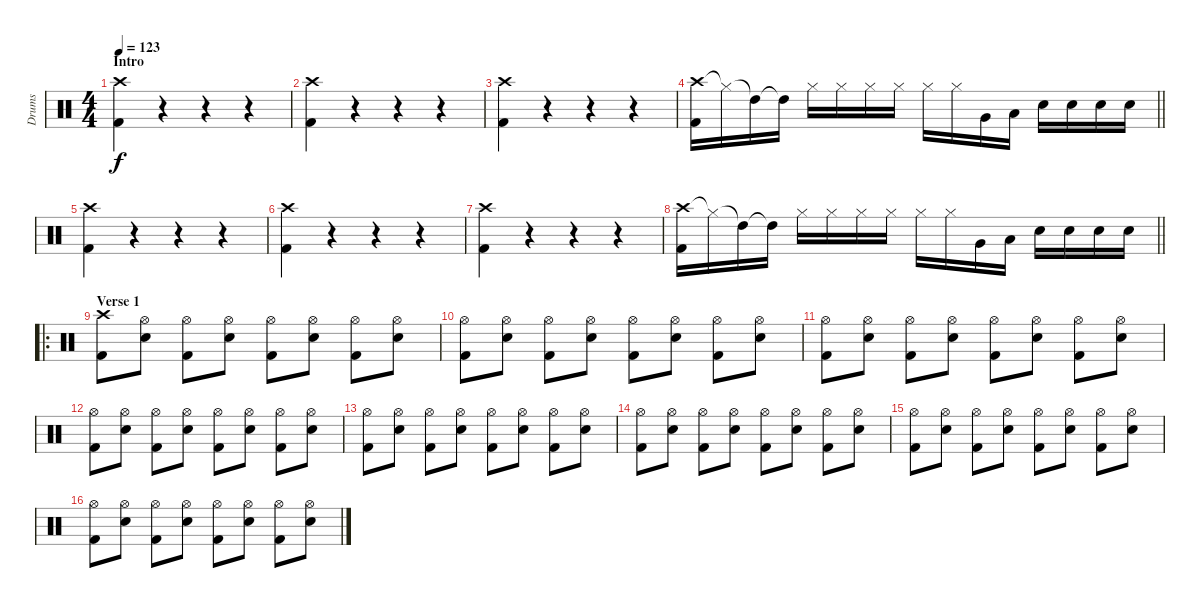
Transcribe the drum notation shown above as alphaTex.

\track ("Drums" "Drums") {instrument percussion}
\staff {score}
\articulation defaults
\ts (4 4)
\section ("" "Intro")
\tempo 123
\clef neutral
\ks c
("Crash high (hit)" "Kick (hit) 2").4{dy f} r.4 r.4 r.4 |
("Crash high (hit)" "Kick (hit) 2").4 r.4 r.4 r.4 |
("Crash high (hit)" "Kick (hit) 2").4 r.4 r.4 r.4 |
\barLineRight lightlight
("Crash high (hit)" "Kick (hit) 2").16 "Hi-Hat (closed)"{t}.16 "High Tom (hit)"{t}.16 "High Tom (hit)"{t}.16 "Hi-Hat (closed)".16 "Hi-Hat (closed)".16 "Hi-Hat (closed)".16 "Hi-Hat (closed)".16 "Hi-Hat (closed)".16 "Hi-Hat (closed)".16 "Very Low Tom (hit)".16 "Low Tom (hit)".16 "Snare (hit) 2".16 "Snare (hit) 2".16 "Snare (hit) 2".16 "Snare (hit) 2".16 |
("Crash high (hit)" "Kick (hit) 2").4 r.4 r.4 r.4 |
("Crash high (hit)" "Kick (hit) 2").4 r.4 r.4 r.4 |
("Crash high (hit)" "Kick (hit) 2").4 r.4 r.4 r.4 |
\barLineRight lightlight
("Crash high (hit)" "Kick (hit) 2").16 "Hi-Hat (closed)"{t}.16 "High Tom (hit)"{t}.16 "High Tom (hit)"{t}.16 "Hi-Hat (closed)".16 "Hi-Hat (closed)".16 "Hi-Hat (closed)".16 "Hi-Hat (closed)".16 "Hi-Hat (closed)".16 "Hi-Hat (closed)".16 "Very Low Tom (hit)".16 "Low Tom (hit)".16 "Snare (hit) 2".16 "Snare (hit) 2".16 "Snare (hit) 2".16 "Snare (hit) 2".16 |
\ro
\section ("" "Verse 1")
("Crash high (hit)" "Kick (hit) 2").8 ("Hi-Hat (open)" "Snare (hit) 2").8 ("Hi-Hat (open)" "Kick (hit) 2").8 ("Hi-Hat (open)" "Snare (hit) 2").8 ("Hi-Hat (open)" "Kick (hit) 2").8 ("Hi-Hat (open)" "Snare (hit) 2").8 ("Hi-Hat (open)" "Kick (hit) 2").8 ("Hi-Hat (open)" "Snare (hit) 2").8 |
("Hi-Hat (open)" "Kick (hit) 2").8 ("Hi-Hat (open)" "Snare (hit) 2").8 ("Hi-Hat (open)" "Kick (hit) 2").8 ("Hi-Hat (open)" "Snare (hit) 2").8 ("Hi-Hat (open)" "Kick (hit) 2").8 ("Hi-Hat (open)" "Snare (hit) 2").8 ("Hi-Hat (open)" "Kick (hit) 2").8 ("Hi-Hat (open)" "Snare (hit) 2").8 |
("Hi-Hat (open)" "Kick (hit) 2").8 ("Hi-Hat (open)" "Snare (hit) 2").8 ("Hi-Hat (open)" "Kick (hit) 2").8 ("Hi-Hat (open)" "Snare (hit) 2").8 ("Hi-Hat (open)" "Kick (hit) 2").8 ("Hi-Hat (open)" "Snare (hit) 2").8 ("Hi-Hat (open)" "Kick (hit) 2").8 ("Hi-Hat (open)" "Snare (hit) 2").8 |
("Hi-Hat (open)" "Kick (hit) 2").8 ("Hi-Hat (open)" "Snare (hit) 2").8 ("Hi-Hat (open)" "Kick (hit) 2").8 ("Hi-Hat (open)" "Snare (hit) 2").8 ("Hi-Hat (open)" "Kick (hit) 2").8 ("Hi-Hat (open)" "Snare (hit) 2").8 ("Hi-Hat (open)" "Kick (hit) 2").8 ("Hi-Hat (open)" "Snare (hit) 2").8 |
("Hi-Hat (open)" "Kick (hit) 2").8 ("Hi-Hat (open)" "Snare (hit) 2").8 ("Hi-Hat (open)" "Kick (hit) 2").8 ("Hi-Hat (open)" "Snare (hit) 2").8 ("Hi-Hat (open)" "Kick (hit) 2").8 ("Hi-Hat (open)" "Snare (hit) 2").8 ("Hi-Hat (open)" "Kick (hit) 2").8 ("Hi-Hat (open)" "Snare (hit) 2").8 |
("Hi-Hat (open)" "Kick (hit) 2").8 ("Hi-Hat (open)" "Snare (hit) 2").8 ("Hi-Hat (open)" "Kick (hit) 2").8 ("Hi-Hat (open)" "Snare (hit) 2").8 ("Hi-Hat (open)" "Kick (hit) 2").8 ("Hi-Hat (open)" "Snare (hit) 2").8 ("Hi-Hat (open)" "Kick (hit) 2").8 ("Hi-Hat (open)" "Snare (hit) 2").8 |
("Hi-Hat (open)" "Kick (hit) 2").8 ("Hi-Hat (open)" "Snare (hit) 2").8 ("Hi-Hat (open)" "Kick (hit) 2").8 ("Hi-Hat (open)" "Snare (hit) 2").8 ("Hi-Hat (open)" "Kick (hit) 2").8 ("Hi-Hat (open)" "Snare (hit) 2").8 ("Hi-Hat (open)" "Kick (hit) 2").8 ("Hi-Hat (open)" "Snare (hit) 2").8 |
("Hi-Hat (open)" "Kick (hit) 2").8 ("Hi-Hat (open)" "Snare (hit) 2").8 ("Hi-Hat (open)" "Kick (hit) 2").8 ("Hi-Hat (open)" "Snare (hit) 2").8 ("Hi-Hat (open)" "Kick (hit) 2").8 ("Hi-Hat (open)" "Snare (hit) 2").8 ("Hi-Hat (open)" "Kick (hit) 2").8 ("Hi-Hat (open)" "Snare (hit) 2").8
